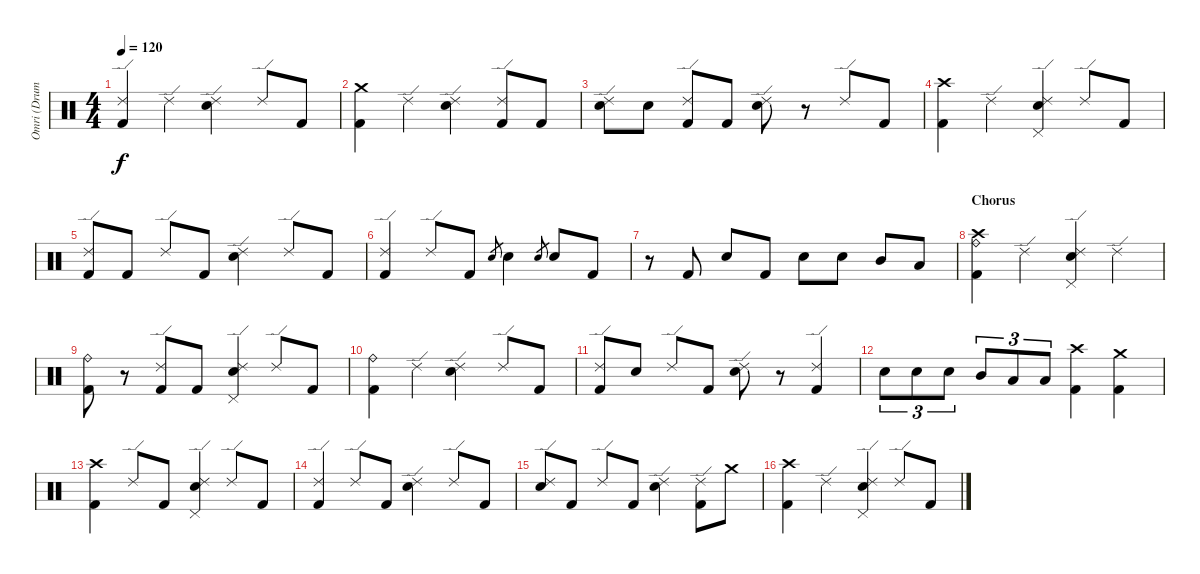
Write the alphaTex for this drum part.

\track ("Omri (Drums)" "Omri (Drum") {instrument percussion}
\staff {score}
\articulation defaults
\ts (4 4)
\tempo 120
\clef neutral
\ks c
("Ride (edge) 2" "Kick (hit) 2").4{dy f} "Ride (edge) 2".4 ("Ride (edge) 2" "Snare (hit) 2").4 "Ride (edge) 2".8 "Kick (hit) 2".8 |
("Crash medium (hit)" "Kick (hit) 2").4 "Ride (edge) 2".4 ("Ride (edge) 2" "Snare (hit) 2").4 ("Ride (edge) 2" "Kick (hit) 2").8 "Kick (hit) 2".8 |
("Ride (edge) 2" "Snare (hit) 2").8 "Snare (hit) 2".8 ("Ride (edge) 2" "Kick (hit) 2").8 "Kick (hit) 2".8 ("Ride (edge) 2" "Snare (hit) 2").8 r.8 "Ride (edge) 2".8 "Kick (hit) 2".8 |
("Crash high (hit)" "Kick (hit) 2").4 "Ride (edge) 2".4 ("Ride (edge) 2" "Snare (hit) 2" "Pedal Hi-Hat (hit)").4 "Ride (edge) 2".8 "Kick (hit) 2".8 |
("Ride (edge) 2" "Kick (hit) 2").8 "Kick (hit) 2".8 "Ride (edge) 2".8 "Kick (hit) 2".8 ("Ride (edge) 2" "Snare (hit) 2").4 "Ride (edge) 2".8 "Kick (hit) 2".8 |
("Ride (edge) 2" "Kick (hit) 2").4 "Ride (edge) 2".8 "Kick (hit) 2".8 "Snare (hit) 2".8{gr} "Snare (hit) 2".4 "Snare (hit) 2".8{gr} "Snare (hit) 2".8 "Kick (hit) 2".8 |
r.8 "Kick (hit) 2".8 "Snare (hit) 2".8 "Kick (hit) 2".8 "Snare (hit) 2".8 "Snare (hit) 2".8 "Mid Tom (hit)".8 "Low Tom (hit)".8 |
\section ("" "Chorus")
("Crash high (hit)" "Ride (bell)" "Kick (hit) 2").4 "Ride (edge) 2".4 ("Ride (edge) 2" "Snare (hit) 2" "Pedal Hi-Hat (hit)").4 "Ride (edge) 2".4 |
("Ride (bell)" "Kick (hit) 2").8 r.8 ("Ride (edge) 2" "Kick (hit) 2").8 "Kick (hit) 2".8 ("Ride (edge) 2" "Snare (hit) 2" "Pedal Hi-Hat (hit)").4 "Ride (edge) 2".8 "Kick (hit) 2".8 |
("Ride (bell)" "Kick (hit) 2").4 "Ride (edge) 2".4 ("Ride (edge) 2" "Snare (hit) 2").4 "Ride (edge) 2".8 "Kick (hit) 2".8 |
("Ride (edge) 2" "Kick (hit) 2").8 "Snare (hit) 2".8 "Ride (edge) 2".8 "Kick (hit) 2".8 ("Ride (edge) 2" "Snare (hit) 2").8 r.8 ("Ride (edge) 2" "Kick (hit) 2").4 |
"Snare (hit) 2".8{tu (3 2)} "Snare (hit) 2".8{tu (3 2)} "Snare (hit) 2".8{tu (3 2)} "Mid Tom (hit)".8{tu (3 2)} "Low Tom (hit)".8{tu (3 2)} "Low Tom (hit)".8{tu (3 2)} ("Crash high (hit)" "Kick (hit) 2").4 ("Crash medium (hit)" "Kick (hit) 2").4 |
("Crash high (hit)" "Kick (hit) 2").4 "Ride (edge) 2".8 "Kick (hit) 2".8 ("Ride (edge) 2" "Snare (hit) 2" "Pedal Hi-Hat (hit)").4 "Ride (edge) 2".8 "Kick (hit) 2".8 |
("Ride (edge) 2" "Kick (hit) 2").4 "Ride (edge) 2".8 "Kick (hit) 2".8 ("Ride (edge) 2" "Snare (hit) 2").4 "Ride (edge) 2".8 "Kick (hit) 2".8 |
("Ride (edge) 2" "Snare (hit) 2").8 "Kick (hit) 2".8 "Ride (edge) 2".8 "Kick (hit) 2".8 ("Ride (edge) 2" "Snare (hit) 2").4 ("Ride (edge) 2" "Kick (hit) 2").8 "Crash medium (hit)".8 |
("Crash high (hit)" "Kick (hit) 2").4 "Ride (edge) 2".4 ("Ride (edge) 2" "Snare (hit) 2" "Pedal Hi-Hat (hit)").4 "Ride (edge) 2".8 "Kick (hit) 2".8
